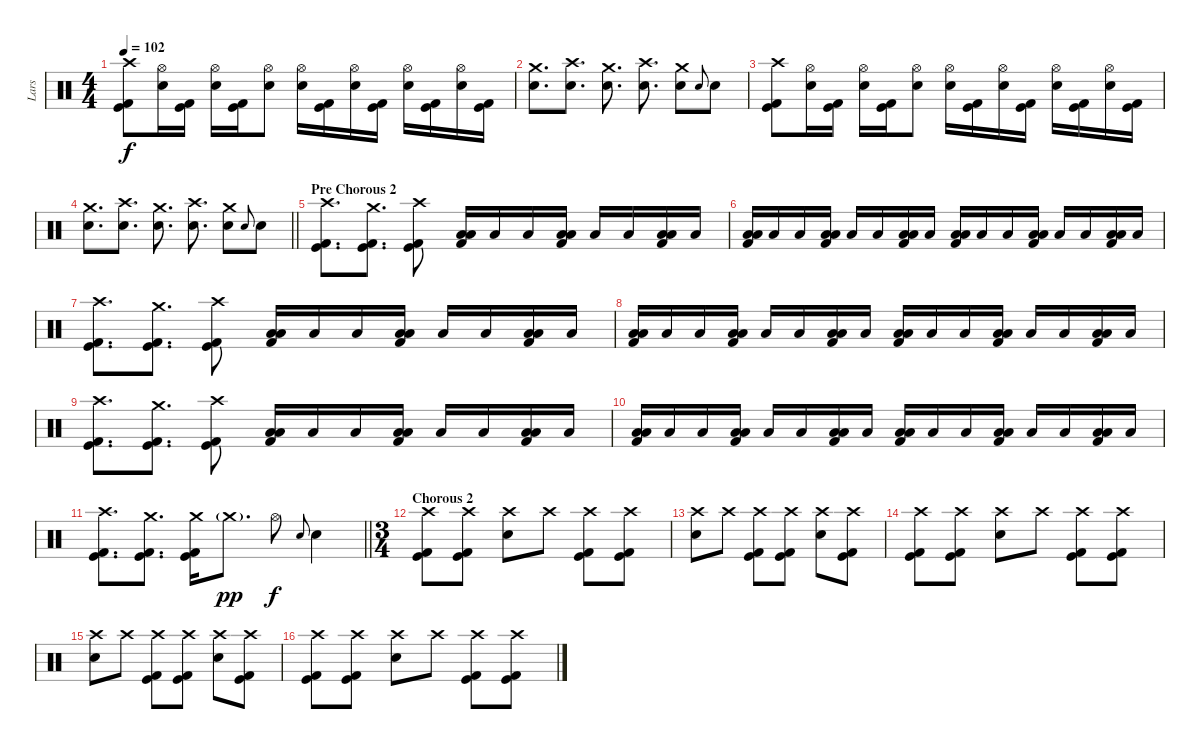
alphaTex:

\track ("Lars" "Lars") {instrument percussion}
\staff {score}
\articulation defaults
\ts (4 4)
\tempo 102
\clef neutral
\ks c
("Crash high (hit)" "Kick (hit)" "Kick (hit) 2").8{dy f} ("Hi-Hat (open)" "Electric Snare (hit)").16 ("Kick (hit)" "Kick (hit) 2").16 ("Hi-Hat (open)" "Electric Snare (hit)").16 ("Kick (hit)" "Kick (hit) 2").16 ("Hi-Hat (open)" "Electric Snare (hit)").8 ("Hi-Hat (open)" "Electric Snare (hit)").16 ("Kick (hit)" "Kick (hit) 2").16 ("Hi-Hat (open)" "Electric Snare (hit)").16 ("Kick (hit)" "Kick (hit) 2").16 ("Hi-Hat (open)" "Electric Snare (hit)").16 ("Kick (hit)" "Kick (hit) 2").16 ("Hi-Hat (open)" "Electric Snare (hit)").16 ("Kick (hit)" "Kick (hit) 2").16 |
("Crash medium (hit)" "Electric Snare (hit)").8{d} ("Crash high (hit)" "Electric Snare (hit)").8{d} ("Crash medium (hit)" "Electric Snare (hit)").8{d} ("Crash high (hit)" "Electric Snare (hit)").8{d} ("Crash medium (hit)" "Electric Snare (hit)").8 "Electric Snare (hit)".8{gr onbeat} "Electric Snare (hit)".8 |
("Crash high (hit)" "Kick (hit)" "Kick (hit) 2").8 ("Hi-Hat (open)" "Electric Snare (hit)").16 ("Kick (hit)" "Kick (hit) 2").16 ("Hi-Hat (open)" "Electric Snare (hit)").16 ("Kick (hit)" "Kick (hit) 2").16 ("Hi-Hat (open)" "Electric Snare (hit)").8 ("Hi-Hat (open)" "Electric Snare (hit)").16 ("Kick (hit)" "Kick (hit) 2").16 ("Hi-Hat (open)" "Electric Snare (hit)").16 ("Kick (hit)" "Kick (hit) 2").16 ("Hi-Hat (open)" "Electric Snare (hit)").16 ("Kick (hit)" "Kick (hit) 2").16 ("Hi-Hat (open)" "Electric Snare (hit)").16 ("Kick (hit)" "Kick (hit) 2").16 |
\barLineRight lightlight
("Crash medium (hit)" "Electric Snare (hit)").8{d} ("Crash high (hit)" "Electric Snare (hit)").8{d} ("Crash medium (hit)" "Electric Snare (hit)").8{d} ("Crash high (hit)" "Electric Snare (hit)").8{d} ("Crash medium (hit)" "Electric Snare (hit)").8 "Electric Snare (hit)".8{gr onbeat} "Electric Snare (hit)".8 |
\section ("" "Pre Chorous 2")
("Crash high (hit)" "Kick (hit)" "Kick (hit) 2").8{d} ("Crash medium (hit)" "Kick (hit)" "Kick (hit) 2").8{d} ("Crash high (hit)" "Kick (hit)" "Kick (hit) 2").8 ("Low Tom (hit)" "Low Floor Tom (hit)" "Kick (hit) 2").16 "Low Floor Tom (hit)".16 "Low Floor Tom (hit)".16 ("Low Tom (hit)" "Low Floor Tom (hit)" "Kick (hit) 2").16 "Low Floor Tom (hit)".16 "Low Floor Tom (hit)".16 ("Low Tom (hit)" "Low Floor Tom (hit)" "Kick (hit) 2").16 "Low Floor Tom (hit)".16 |
("Low Tom (hit)" "Low Floor Tom (hit)" "Kick (hit) 2").16 "Low Floor Tom (hit)".16 "Low Floor Tom (hit)".16 ("Low Tom (hit)" "Low Floor Tom (hit)" "Kick (hit) 2").16 "Low Floor Tom (hit)".16 "Low Floor Tom (hit)".16 ("Low Tom (hit)" "Low Floor Tom (hit)" "Kick (hit) 2").16 "Low Floor Tom (hit)".16 ("Low Tom (hit)" "Low Floor Tom (hit)" "Kick (hit) 2").16 "Low Floor Tom (hit)".16 "Low Floor Tom (hit)".16 ("Low Tom (hit)" "Low Floor Tom (hit)" "Kick (hit) 2").16 "Low Floor Tom (hit)".16 "Low Floor Tom (hit)".16 ("Low Tom (hit)" "Low Floor Tom (hit)" "Kick (hit) 2").16 "Low Floor Tom (hit)".16 |
("Crash high (hit)" "Kick (hit)" "Kick (hit) 2").8{d} ("Crash medium (hit)" "Kick (hit)" "Kick (hit) 2").8{d} ("Crash high (hit)" "Kick (hit)" "Kick (hit) 2").8 ("Low Tom (hit)" "Low Floor Tom (hit)" "Kick (hit) 2").16 "Low Floor Tom (hit)".16 "Low Floor Tom (hit)".16 ("Low Tom (hit)" "Low Floor Tom (hit)" "Kick (hit) 2").16 "Low Floor Tom (hit)".16 "Low Floor Tom (hit)".16 ("Low Tom (hit)" "Low Floor Tom (hit)" "Kick (hit) 2").16 "Low Floor Tom (hit)".16 |
("Low Tom (hit)" "Low Floor Tom (hit)" "Kick (hit) 2").16 "Low Floor Tom (hit)".16 "Low Floor Tom (hit)".16 ("Low Tom (hit)" "Low Floor Tom (hit)" "Kick (hit) 2").16 "Low Floor Tom (hit)".16 "Low Floor Tom (hit)".16 ("Low Tom (hit)" "Low Floor Tom (hit)" "Kick (hit) 2").16 "Low Floor Tom (hit)".16 ("Low Tom (hit)" "Low Floor Tom (hit)" "Kick (hit) 2").16 "Low Floor Tom (hit)".16 "Low Floor Tom (hit)".16 ("Low Tom (hit)" "Low Floor Tom (hit)" "Kick (hit) 2").16 "Low Floor Tom (hit)".16 "Low Floor Tom (hit)".16 ("Low Tom (hit)" "Low Floor Tom (hit)" "Kick (hit) 2").16 "Low Floor Tom (hit)".16 |
("Crash high (hit)" "Kick (hit)" "Kick (hit) 2").8{d} ("Crash medium (hit)" "Kick (hit)" "Kick (hit) 2").8{d} ("Crash high (hit)" "Kick (hit)" "Kick (hit) 2").8 ("Low Tom (hit)" "Low Floor Tom (hit)" "Kick (hit) 2").16 "Low Floor Tom (hit)".16 "Low Floor Tom (hit)".16 ("Low Tom (hit)" "Low Floor Tom (hit)" "Kick (hit) 2").16 "Low Floor Tom (hit)".16 "Low Floor Tom (hit)".16 ("Low Tom (hit)" "Low Floor Tom (hit)" "Kick (hit) 2").16 "Low Floor Tom (hit)".16 |
("Low Tom (hit)" "Low Floor Tom (hit)" "Kick (hit) 2").16 "Low Floor Tom (hit)".16 "Low Floor Tom (hit)".16 ("Low Tom (hit)" "Low Floor Tom (hit)" "Kick (hit) 2").16 "Low Floor Tom (hit)".16 "Low Floor Tom (hit)".16 ("Low Tom (hit)" "Low Floor Tom (hit)" "Kick (hit) 2").16 "Low Floor Tom (hit)".16 ("Low Tom (hit)" "Low Floor Tom (hit)" "Kick (hit) 2").16 "Low Floor Tom (hit)".16 "Low Floor Tom (hit)".16 ("Low Tom (hit)" "Low Floor Tom (hit)" "Kick (hit) 2").16 "Low Floor Tom (hit)".16 "Low Floor Tom (hit)".16 ("Low Tom (hit)" "Low Floor Tom (hit)" "Kick (hit) 2").16 "Low Floor Tom (hit)".16 |
\barLineRight lightlight
("Crash high (hit)" "Kick (hit)" "Kick (hit) 2").8{d} ("Crash medium (hit)" "Kick (hit)" "Kick (hit) 2").8{d} ("Crash medium (hit)" "Kick (hit)" "Kick (hit) 2").16 "Crash medium (hit)"{g}.8{d dy pp} "Hi-Hat (open)".8{dy f} "Electric Snare (hit)".8{gr onbeat} "Electric Snare (hit)".4 |
\ts (3 4)
\section ("" "Chorous 2")
("Crash high (hit)" "Kick (hit)" "Kick (hit) 2").8 ("Crash high (hit)" "Kick (hit)" "Kick (hit) 2").8 ("Crash high (hit)" "Electric Snare (hit)").8 "Crash high (hit)".8 ("Crash high (hit)" "Kick (hit)" "Kick (hit) 2").8 ("Crash high (hit)" "Kick (hit)" "Kick (hit) 2").8 |
("Crash high (hit)" "Electric Snare (hit)").8 "Crash high (hit)".8 ("Crash high (hit)" "Kick (hit)" "Kick (hit) 2").8 ("Crash high (hit)" "Kick (hit)" "Kick (hit) 2").8 ("Crash high (hit)" "Electric Snare (hit)").8 ("Crash high (hit)" "Kick (hit)" "Kick (hit) 2").8 |
("Crash high (hit)" "Kick (hit)" "Kick (hit) 2").8 ("Crash high (hit)" "Kick (hit)" "Kick (hit) 2").8 ("Crash high (hit)" "Electric Snare (hit)").8 "Crash high (hit)".8 ("Crash high (hit)" "Kick (hit)" "Kick (hit) 2").8 ("Crash high (hit)" "Kick (hit)" "Kick (hit) 2").8 |
("Crash high (hit)" "Electric Snare (hit)").8 "Crash high (hit)".8 ("Crash high (hit)" "Kick (hit)" "Kick (hit) 2").8 ("Crash high (hit)" "Kick (hit)" "Kick (hit) 2").8 ("Crash high (hit)" "Electric Snare (hit)").8 ("Crash high (hit)" "Kick (hit)" "Kick (hit) 2").8 |
("Crash high (hit)" "Kick (hit)" "Kick (hit) 2").8 ("Crash high (hit)" "Kick (hit)" "Kick (hit) 2").8 ("Crash high (hit)" "Electric Snare (hit)").8 "Crash high (hit)".8 ("Crash high (hit)" "Kick (hit)" "Kick (hit) 2").8 ("Crash high (hit)" "Kick (hit)" "Kick (hit) 2").8
